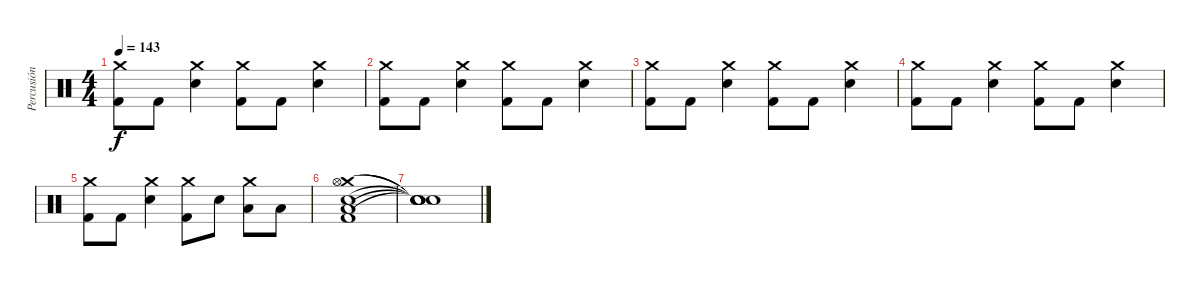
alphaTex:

\track ("Percusión" "Percusión") {instrument percussion}
\staff {score}
\articulation defaults
\ts (4 4)
\tempo 143
\clef neutral
\ks c
("Crash medium (hit)" "Kick (hit) 2").8{dy f} "Kick (hit) 2".8 ("Crash medium (hit)" "Snare (hit) 2").4 ("Crash medium (hit)" "Kick (hit) 2").8 "Kick (hit) 2".8 ("Crash medium (hit)" "Snare (hit) 2").4 |
("Crash medium (hit)" "Kick (hit) 2").8 "Kick (hit) 2".8 ("Crash medium (hit)" "Snare (hit) 2").4 ("Crash medium (hit)" "Kick (hit) 2").8 "Kick (hit) 2".8 ("Crash medium (hit)" "Snare (hit) 2").4 |
("Crash medium (hit)" "Kick (hit) 2").8 "Kick (hit) 2".8 ("Crash medium (hit)" "Snare (hit) 2").4 ("Crash medium (hit)" "Kick (hit) 2").8 "Kick (hit) 2".8 ("Crash medium (hit)" "Snare (hit) 2").4 |
("Crash medium (hit)" "Kick (hit) 2").8 "Kick (hit) 2".8 ("Crash medium (hit)" "Snare (hit) 2").4 ("Crash medium (hit)" "Kick (hit) 2").8 "Kick (hit) 2".8 ("Crash medium (hit)" "Snare (hit) 2").4 |
("Crash medium (hit)" "Kick (hit) 2").8 "Kick (hit) 2".8 ("Crash medium (hit)" "Snare (hit) 2").4 ("Crash medium (hit)" "Kick (hit) 2").8 "Snare (hit) 2".8 ("Crash medium (hit)" "Low Tom (hit)").8 "Low Tom (hit)".8 |
("Crash medium (hit)" "Hi-Hat (open)" "Low Tom (hit)" "Snare (hit) 2" "Kick (hit) 2").1 |
("Snare (hit)"{t} "Snare (hit)"{t} "Snare (hit)"{t} "Snare (hit)"{t} "Snare (hit)"{t}).1
